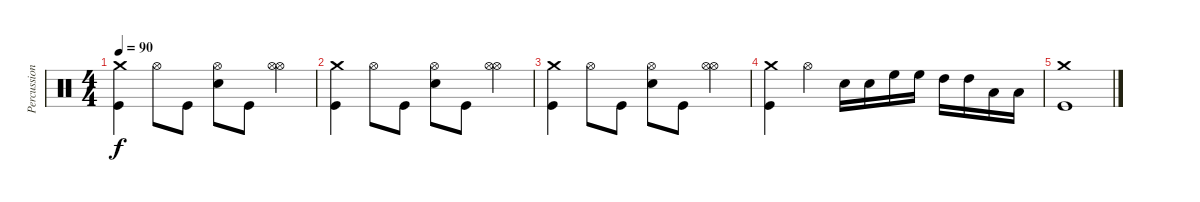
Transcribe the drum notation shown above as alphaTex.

\track ("Percussion" "Percussion") {instrument percussion}
\staff {score}
\articulation defaults
\ts (4 4)
\tempo 90
\clef neutral
\ks c
("Crash medium (hit)" "Kick (hit)").4{dy f} "Hi-Hat (open)".8 "Kick (hit)".8 ("Hi-Hat (open)" "Snare (hit) 2").8 "Kick (hit)".8 ("Hi-Hat (open)" "Hi-Hat (open)").4 |
("Crash medium (hit)" "Kick (hit)").4 "Hi-Hat (open)".8 "Kick (hit)".8 ("Hi-Hat (open)" "Snare (hit) 2").8 "Kick (hit)".8 ("Hi-Hat (open)" "Hi-Hat (open)").4 |
("Crash medium (hit)" "Kick (hit)").4 "Hi-Hat (open)".8 "Kick (hit)".8 ("Hi-Hat (open)" "Snare (hit) 2").8 "Kick (hit)".8 ("Hi-Hat (open)" "Hi-Hat (open)").4 |
("Crash medium (hit)" "Kick (hit)").4 "Hi-Hat (open)".4 "Snare (hit) 2".16 "Snare (hit) 2".16 "High Floor Tom (hit)".16 "High Floor Tom (hit)".16 "High Tom (hit)".16 "High Tom (hit)".16 "Low Tom (hit)".16 "Low Tom (hit)".16 |
("Crash medium (hit)" "Kick (hit)").1
